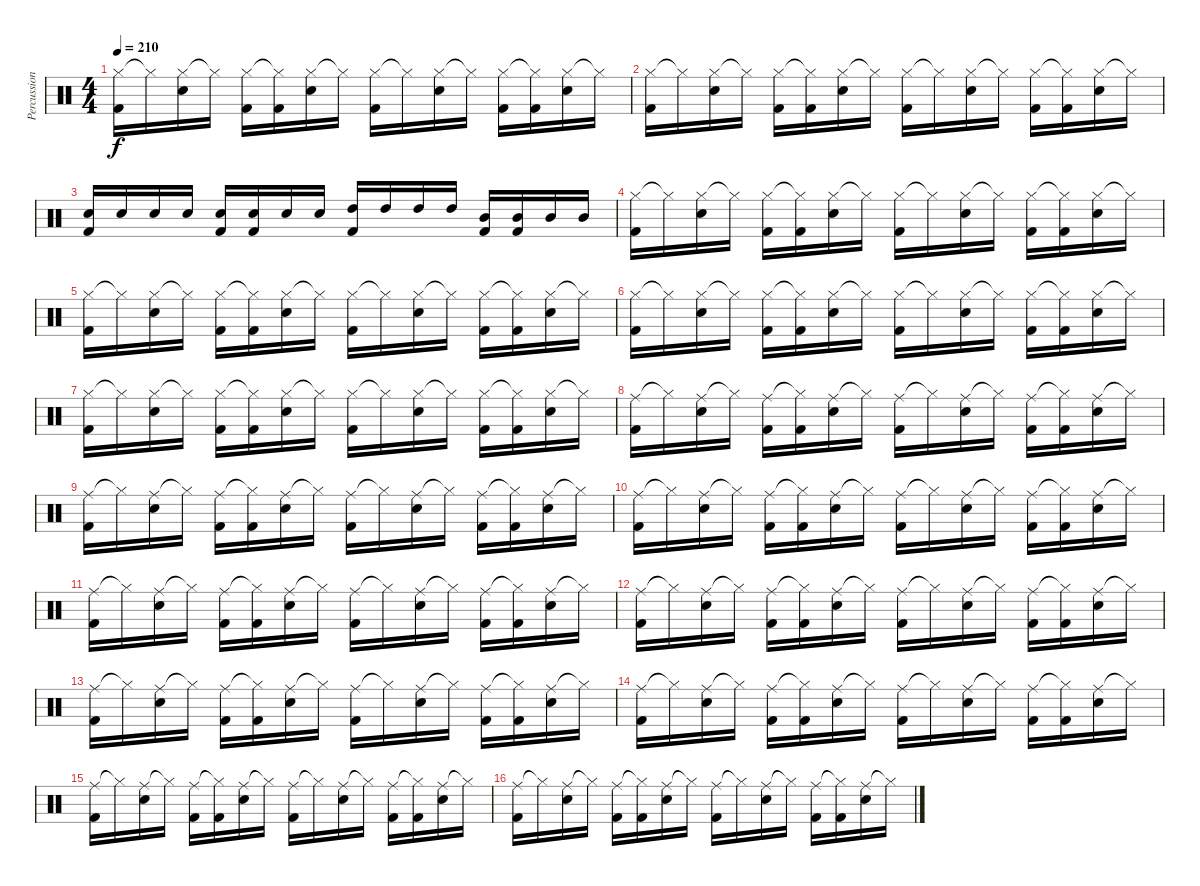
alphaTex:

\track ("Percussion" "Percussion") {instrument percussion}
\staff {score}
\articulation defaults
\ts (4 4)
\tempo 210
\clef neutral
\ks c
("Hi-Hat (closed)" "Kick (hit) 2").16{dy f} "Hi-Hat (closed)"{t}.16 ("Hi-Hat (closed)" "Snare (hit) 2").16 "Hi-Hat (closed)"{t}.16 ("Hi-Hat (closed)" "Kick (hit) 2").16 ("Hi-Hat (closed)"{t} "Kick (hit) 2").16 ("Hi-Hat (closed)" "Snare (hit) 2").16 "Hi-Hat (closed)"{t}.16 ("Hi-Hat (closed)" "Kick (hit) 2").16 "Hi-Hat (closed)"{t}.16 ("Hi-Hat (closed)" "Snare (hit) 2").16 "Hi-Hat (closed)"{t}.16 ("Hi-Hat (closed)" "Kick (hit) 2").16 ("Hi-Hat (closed)"{t} "Kick (hit) 2").16 ("Hi-Hat (closed)" "Snare (hit) 2").16 "Hi-Hat (closed)"{t}.16 |
("Hi-Hat (closed)" "Kick (hit) 2").16 "Hi-Hat (closed)"{t}.16 ("Hi-Hat (closed)" "Snare (hit) 2").16 "Hi-Hat (closed)"{t}.16 ("Hi-Hat (closed)" "Kick (hit) 2").16 ("Hi-Hat (closed)"{t} "Kick (hit) 2").16 ("Hi-Hat (closed)" "Snare (hit) 2").16 "Hi-Hat (closed)"{t}.16 ("Hi-Hat (closed)" "Kick (hit) 2").16 "Hi-Hat (closed)"{t}.16 ("Hi-Hat (closed)" "Snare (hit) 2").16 "Hi-Hat (closed)"{t}.16 ("Hi-Hat (closed)" "Kick (hit) 2").16 ("Hi-Hat (closed)"{t} "Kick (hit) 2").16 ("Hi-Hat (closed)" "Snare (hit) 2").16 "Hi-Hat (closed)"{t}.16 |
("Snare (hit) 2" "Kick (hit) 2").16 "Snare (hit) 2".16 "Snare (hit) 2".16 "Snare (hit) 2".16 ("Snare (hit) 2" "Kick (hit) 2").16 ("Snare (hit) 2" "Kick (hit) 2").16 "Snare (hit) 2".16 "Snare (hit) 2".16 ("High Tom (hit)" "Kick (hit) 2").16 "High Tom (hit)".16 "High Tom (hit)".16 "High Tom (hit)".16 ("Mid Tom (hit)" "Kick (hit) 2").16 ("Mid Tom (hit)" "Kick (hit) 2").16 "Mid Tom (hit)".16 "Mid Tom (hit)".16 |
("Hi-Hat (closed)" "Kick (hit) 2").16 "Hi-Hat (closed)"{t}.16 ("Hi-Hat (closed)" "Snare (hit) 2").16 "Hi-Hat (closed)"{t}.16 ("Hi-Hat (closed)" "Kick (hit) 2").16 ("Hi-Hat (closed)"{t} "Kick (hit) 2").16 ("Hi-Hat (closed)" "Snare (hit) 2").16 "Hi-Hat (closed)"{t}.16 ("Hi-Hat (closed)" "Kick (hit) 2").16 "Hi-Hat (closed)"{t}.16 ("Hi-Hat (closed)" "Snare (hit) 2").16 "Hi-Hat (closed)"{t}.16 ("Hi-Hat (closed)" "Kick (hit) 2").16 ("Hi-Hat (closed)"{t} "Kick (hit) 2").16 ("Hi-Hat (closed)" "Snare (hit) 2").16 "Hi-Hat (closed)"{t}.16 |
("Hi-Hat (closed)" "Kick (hit) 2").16 "Hi-Hat (closed)"{t}.16 ("Hi-Hat (closed)" "Snare (hit) 2").16 "Hi-Hat (closed)"{t}.16 ("Hi-Hat (closed)" "Kick (hit) 2").16 ("Hi-Hat (closed)"{t} "Kick (hit) 2").16 ("Hi-Hat (closed)" "Snare (hit) 2").16 "Hi-Hat (closed)"{t}.16 ("Hi-Hat (closed)" "Kick (hit) 2").16 "Hi-Hat (closed)"{t}.16 ("Hi-Hat (closed)" "Snare (hit) 2").16 "Hi-Hat (closed)"{t}.16 ("Hi-Hat (closed)" "Kick (hit) 2").16 ("Hi-Hat (closed)"{t} "Kick (hit) 2").16 ("Hi-Hat (closed)" "Snare (hit) 2").16 "Hi-Hat (closed)"{t}.16 |
("Hi-Hat (closed)" "Kick (hit) 2").16 "Hi-Hat (closed)"{t}.16 ("Hi-Hat (closed)" "Snare (hit) 2").16 "Hi-Hat (closed)"{t}.16 ("Hi-Hat (closed)" "Kick (hit) 2").16 ("Hi-Hat (closed)"{t} "Kick (hit) 2").16 ("Hi-Hat (closed)" "Snare (hit) 2").16 "Hi-Hat (closed)"{t}.16 ("Hi-Hat (closed)" "Kick (hit) 2").16 "Hi-Hat (closed)"{t}.16 ("Hi-Hat (closed)" "Snare (hit) 2").16 "Hi-Hat (closed)"{t}.16 ("Hi-Hat (closed)" "Kick (hit) 2").16 ("Hi-Hat (closed)"{t} "Kick (hit) 2").16 ("Hi-Hat (closed)" "Snare (hit) 2").16 "Hi-Hat (closed)"{t}.16 |
("Hi-Hat (closed)" "Kick (hit) 2").16 "Hi-Hat (closed)"{t}.16 ("Hi-Hat (closed)" "Snare (hit) 2").16 "Hi-Hat (closed)"{t}.16 ("Hi-Hat (closed)" "Kick (hit) 2").16 ("Hi-Hat (closed)"{t} "Kick (hit) 2").16 ("Hi-Hat (closed)" "Snare (hit) 2").16 "Hi-Hat (closed)"{t}.16 ("Hi-Hat (closed)" "Kick (hit) 2").16 "Hi-Hat (closed)"{t}.16 ("Hi-Hat (closed)" "Snare (hit) 2").16 "Hi-Hat (closed)"{t}.16 ("Hi-Hat (closed)" "Kick (hit) 2").16 ("Hi-Hat (closed)"{t} "Kick (hit) 2").16 ("Hi-Hat (closed)" "Snare (hit) 2").16 "Hi-Hat (closed)"{t}.16 |
("Ride (middle)" "Kick (hit) 2").16 "Hi-Hat (closed)"{t}.16 ("Ride (middle)" "Snare (hit) 2").16 "Hi-Hat (closed)"{t}.16 ("Ride (middle)" "Kick (hit) 2").16 ("Hi-Hat (closed)"{t} "Kick (hit) 2").16 ("Ride (middle)" "Snare (hit) 2").16 "Hi-Hat (closed)"{t}.16 ("Ride (middle)" "Kick (hit) 2").16 "Hi-Hat (closed)"{t}.16 ("Ride (middle)" "Snare (hit) 2").16 "Hi-Hat (closed)"{t}.16 ("Ride (middle)" "Kick (hit) 2").16 ("Hi-Hat (closed)"{t} "Kick (hit) 2").16 ("Ride (middle)" "Snare (hit) 2").16 "Hi-Hat (closed)"{t}.16 |
("Ride (middle)" "Kick (hit) 2").16 "Hi-Hat (closed)"{t}.16 ("Ride (middle)" "Snare (hit) 2").16 "Hi-Hat (closed)"{t}.16 ("Ride (middle)" "Kick (hit) 2").16 ("Hi-Hat (closed)"{t} "Kick (hit) 2").16 ("Ride (middle)" "Snare (hit) 2").16 "Hi-Hat (closed)"{t}.16 ("Ride (middle)" "Kick (hit) 2").16 "Hi-Hat (closed)"{t}.16 ("Ride (middle)" "Snare (hit) 2").16 "Hi-Hat (closed)"{t}.16 ("Ride (middle)" "Kick (hit) 2").16 ("Hi-Hat (closed)"{t} "Kick (hit) 2").16 ("Ride (middle)" "Snare (hit) 2").16 "Hi-Hat (closed)"{t}.16 |
("Ride (middle)" "Kick (hit) 2").16 "Hi-Hat (closed)"{t}.16 ("Ride (middle)" "Snare (hit) 2").16 "Hi-Hat (closed)"{t}.16 ("Ride (middle)" "Kick (hit) 2").16 ("Hi-Hat (closed)"{t} "Kick (hit) 2").16 ("Ride (middle)" "Snare (hit) 2").16 "Hi-Hat (closed)"{t}.16 ("Ride (middle)" "Kick (hit) 2").16 "Hi-Hat (closed)"{t}.16 ("Ride (middle)" "Snare (hit) 2").16 "Hi-Hat (closed)"{t}.16 ("Ride (middle)" "Kick (hit) 2").16 ("Hi-Hat (closed)"{t} "Kick (hit) 2").16 ("Ride (middle)" "Snare (hit) 2").16 "Hi-Hat (closed)"{t}.16 |
("Ride (middle)" "Kick (hit) 2").16 "Hi-Hat (closed)"{t}.16 ("Ride (middle)" "Snare (hit) 2").16 "Hi-Hat (closed)"{t}.16 ("Ride (middle)" "Kick (hit) 2").16 ("Hi-Hat (closed)"{t} "Kick (hit) 2").16 ("Ride (middle)" "Snare (hit) 2").16 "Hi-Hat (closed)"{t}.16 ("Ride (middle)" "Kick (hit) 2").16 "Hi-Hat (closed)"{t}.16 ("Ride (middle)" "Snare (hit) 2").16 "Hi-Hat (closed)"{t}.16 ("Ride (middle)" "Kick (hit) 2").16 ("Hi-Hat (closed)"{t} "Kick (hit) 2").16 ("Ride (middle)" "Snare (hit) 2").16 "Hi-Hat (closed)"{t}.16 |
("Ride (middle)" "Kick (hit) 2").16 "Hi-Hat (closed)"{t}.16 ("Ride (middle)" "Snare (hit) 2").16 "Hi-Hat (closed)"{t}.16 ("Ride (middle)" "Kick (hit) 2").16 ("Hi-Hat (closed)"{t} "Kick (hit) 2").16 ("Ride (middle)" "Snare (hit) 2").16 "Hi-Hat (closed)"{t}.16 ("Ride (middle)" "Kick (hit) 2").16 "Hi-Hat (closed)"{t}.16 ("Ride (middle)" "Snare (hit) 2").16 "Hi-Hat (closed)"{t}.16 ("Ride (middle)" "Kick (hit) 2").16 ("Hi-Hat (closed)"{t} "Kick (hit) 2").16 ("Ride (middle)" "Snare (hit) 2").16 "Hi-Hat (closed)"{t}.16 |
("Ride (middle)" "Kick (hit) 2").16 "Hi-Hat (closed)"{t}.16 ("Ride (middle)" "Snare (hit) 2").16 "Hi-Hat (closed)"{t}.16 ("Ride (middle)" "Kick (hit) 2").16 ("Hi-Hat (closed)"{t} "Kick (hit) 2").16 ("Ride (middle)" "Snare (hit) 2").16 "Hi-Hat (closed)"{t}.16 ("Ride (middle)" "Kick (hit) 2").16 "Hi-Hat (closed)"{t}.16 ("Ride (middle)" "Snare (hit) 2").16 "Hi-Hat (closed)"{t}.16 ("Ride (middle)" "Kick (hit) 2").16 ("Hi-Hat (closed)"{t} "Kick (hit) 2").16 ("Ride (middle)" "Snare (hit) 2").16 "Hi-Hat (closed)"{t}.16 |
("Ride (middle)" "Kick (hit) 2").16 "Hi-Hat (closed)"{t}.16 ("Ride (middle)" "Snare (hit) 2").16 "Hi-Hat (closed)"{t}.16 ("Ride (middle)" "Kick (hit) 2").16 ("Hi-Hat (closed)"{t} "Kick (hit) 2").16 ("Ride (middle)" "Snare (hit) 2").16 "Hi-Hat (closed)"{t}.16 ("Ride (middle)" "Kick (hit) 2").16 "Hi-Hat (closed)"{t}.16 ("Ride (middle)" "Snare (hit) 2").16 "Hi-Hat (closed)"{t}.16 ("Ride (middle)" "Kick (hit) 2").16 ("Hi-Hat (closed)"{t} "Kick (hit) 2").16 ("Ride (middle)" "Snare (hit) 2").16 "Hi-Hat (closed)"{t}.16 |
("Ride (middle)" "Kick (hit) 2").16 "Hi-Hat (closed)"{t}.16 ("Ride (middle)" "Snare (hit) 2").16 "Hi-Hat (closed)"{t}.16 ("Ride (middle)" "Kick (hit) 2").16 ("Hi-Hat (closed)"{t} "Kick (hit) 2").16 ("Ride (middle)" "Snare (hit) 2").16 "Hi-Hat (closed)"{t}.16 ("Ride (middle)" "Kick (hit) 2").16 "Hi-Hat (closed)"{t}.16 ("Ride (middle)" "Snare (hit) 2").16 "Hi-Hat (closed)"{t}.16 ("Ride (middle)" "Kick (hit) 2").16 ("Hi-Hat (closed)"{t} "Kick (hit) 2").16 ("Ride (middle)" "Snare (hit) 2").16 "Hi-Hat (closed)"{t}.16 |
("Ride (middle)" "Kick (hit) 2").16 "Hi-Hat (closed)"{t}.16 ("Ride (middle)" "Snare (hit) 2").16 "Hi-Hat (closed)"{t}.16 ("Ride (middle)" "Kick (hit) 2").16 ("Hi-Hat (closed)"{t} "Kick (hit) 2").16 ("Ride (middle)" "Snare (hit) 2").16 "Hi-Hat (closed)"{t}.16 ("Ride (middle)" "Kick (hit) 2").16 "Hi-Hat (closed)"{t}.16 ("Ride (middle)" "Snare (hit) 2").16 "Hi-Hat (closed)"{t}.16 ("Ride (middle)" "Kick (hit) 2").16 ("Hi-Hat (closed)"{t} "Kick (hit) 2").16 ("Ride (middle)" "Snare (hit) 2").16 "Hi-Hat (closed)"{t}.16
